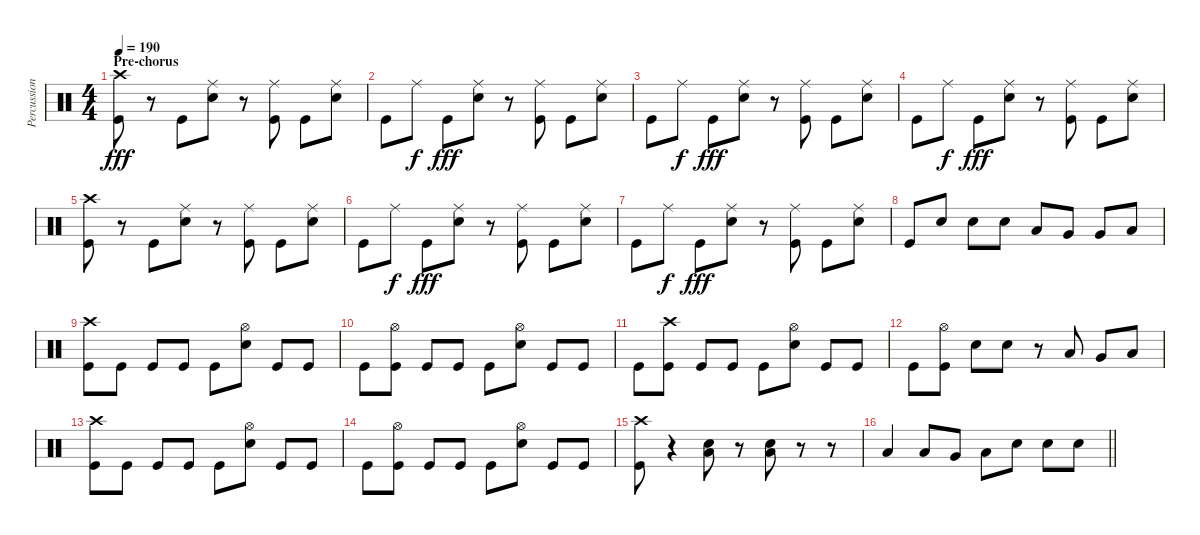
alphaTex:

\track ("Percussioni" "Percussion") {instrument percussion}
\staff {score}
\articulation defaults
\ts (4 4)
\section ("" "Pre-chorus")
\tempo 190
\clef neutral
\ks c
("Crash high (hit)" "Kick (hit)").8{dy fff} r.8 "Kick (hit)".8 ("Ride (middle)" "Snare (hit) 2").8 r.8 ("Ride (middle)" "Kick (hit)").8 "Kick (hit)".8 ("Ride (middle)" "Snare (hit) 2").8 |
"Kick (hit)".8 "Ride (middle)".8{dy f} "Kick (hit)".8{dy fff} ("Ride (middle)" "Snare (hit) 2").8 r.8 ("Ride (middle)" "Kick (hit)").8 "Kick (hit)".8 ("Ride (middle)" "Snare (hit) 2").8 |
"Kick (hit)".8 "Ride (middle)".8{dy f} "Kick (hit)".8{dy fff} ("Ride (middle)" "Snare (hit) 2").8 r.8 ("Ride (middle)" "Kick (hit)").8 "Kick (hit)".8 ("Ride (middle)" "Snare (hit) 2").8 |
"Kick (hit)".8 "Ride (middle)".8{dy f} "Kick (hit)".8{dy fff} ("Ride (middle)" "Snare (hit) 2").8 r.8 ("Ride (middle)" "Kick (hit)").8 "Kick (hit)".8 ("Ride (middle)" "Snare (hit) 2").8 |
("Crash high (hit)" "Kick (hit)").8 r.8 "Kick (hit)".8 ("Ride (middle)" "Snare (hit) 2").8 r.8 ("Ride (middle)" "Kick (hit)").8 "Kick (hit)".8 ("Ride (middle)" "Snare (hit) 2").8 |
"Kick (hit)".8 "Ride (middle)".8{dy f} "Kick (hit)".8{dy fff} ("Ride (middle)" "Snare (hit) 2").8 r.8 ("Ride (middle)" "Kick (hit)").8 "Kick (hit)".8 ("Ride (middle)" "Snare (hit) 2").8 |
"Kick (hit)".8 "Ride (middle)".8{dy f} "Kick (hit)".8{dy fff} ("Ride (middle)" "Snare (hit) 2").8 r.8 ("Ride (middle)" "Kick (hit)").8 "Kick (hit)".8 ("Ride (middle)" "Snare (hit) 2").8 |
"Kick (hit)".8 "Snare (hit) 2".8 "Snare (hit) 2".8 "Snare (hit) 2".8 "Low Tom (hit)".8 "Very Low Tom (hit)".8 "Very Low Tom (hit)".8 "Low Floor Tom (hit)".8 |
("Crash high (hit)" "Kick (hit)").8 "Kick (hit)".8 "Kick (hit)".8 "Kick (hit)".8 "Kick (hit)".8 ("Hi-Hat (open)" "Snare (hit) 2").8 "Kick (hit)".8 "Kick (hit)".8 |
"Kick (hit)".8 ("Hi-Hat (open)" "Kick (hit)").8 "Kick (hit)".8 "Kick (hit)".8 "Kick (hit)".8 ("Hi-Hat (open)" "Snare (hit) 2").8 "Kick (hit)".8 "Kick (hit)".8 |
"Kick (hit)".8 ("Crash high (hit)" "Kick (hit)").8 "Kick (hit)".8 "Kick (hit)".8 "Kick (hit)".8 ("Hi-Hat (open)" "Snare (hit) 2").8 "Kick (hit)".8 "Kick (hit)".8 |
"Kick (hit)".8 ("Hi-Hat (open)" "Kick (hit)").8 "Snare (hit) 2".8 "Snare (hit) 2".8 r.8 "Low Tom (hit)".8 "Very Low Tom (hit)".8 "Low Floor Tom (hit)".8 |
("Crash high (hit)" "Kick (hit)").8 "Kick (hit)".8 "Kick (hit)".8 "Kick (hit)".8 "Kick (hit)".8 ("Hi-Hat (open)" "Snare (hit) 2").8 "Kick (hit)".8 "Kick (hit)".8 |
"Kick (hit)".8 ("Hi-Hat (open)" "Kick (hit)").8 "Kick (hit)".8 "Kick (hit)".8 "Kick (hit)".8 ("Hi-Hat (open)" "Snare (hit) 2").8 "Kick (hit)".8 "Kick (hit)".8 |
("Crash high (hit)" "Kick (hit)").8 r.4 ("Low Floor Tom (hit)" "Snare (hit) 2").8 r.8 ("Low Floor Tom (hit)" "Snare (hit) 2").8 r.8 r.8 |
\barLineRight lightlight "Low Tom (hit)".4 "Low Tom (hit)".8 "Very Low Tom (hit)".8 "Low Floor Tom (hit)".8 "Snare (hit) 2".8 "Snare (hit) 2".8 "Snare (hit) 2".8
